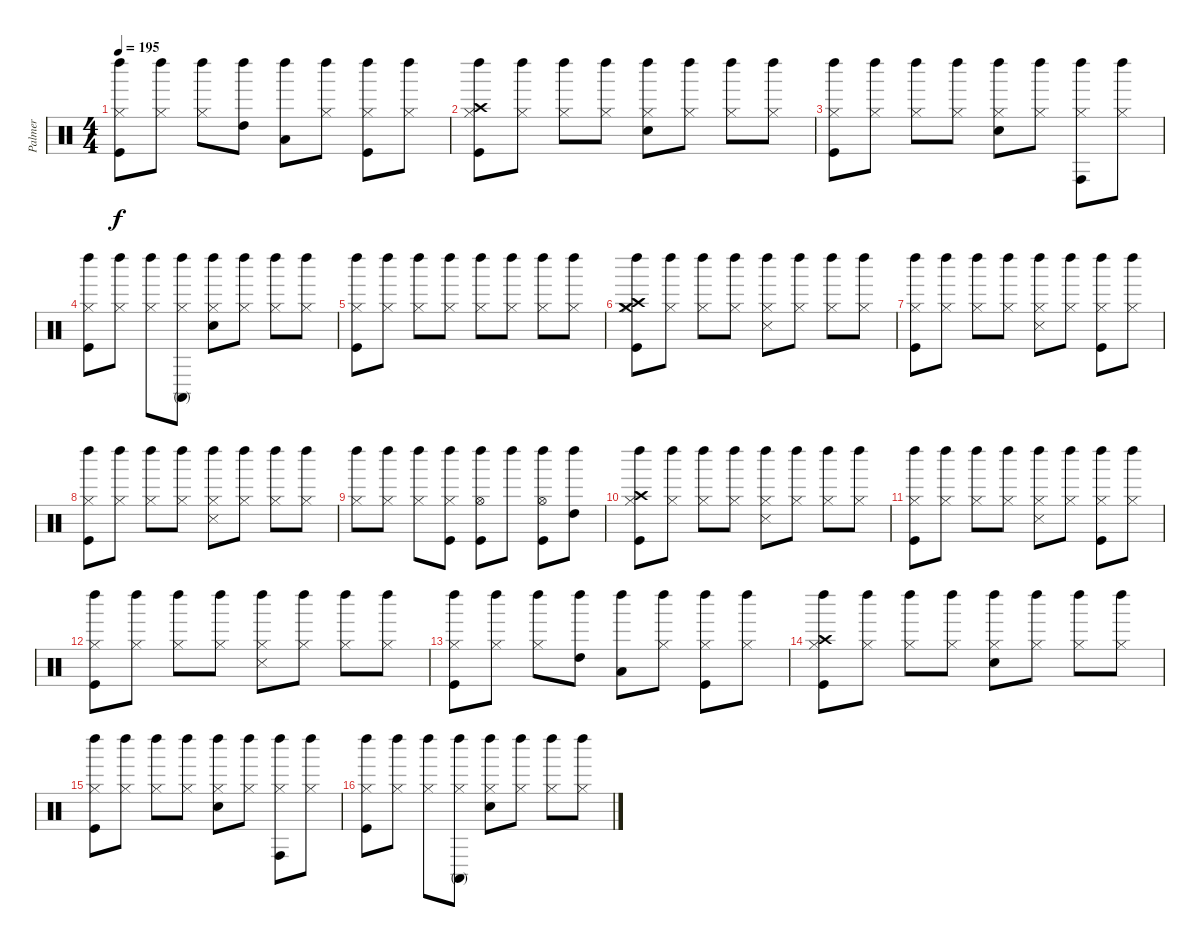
\track ("Palmer" "Palmer") {instrument percussion}
\staff {score}
\articulation defaults
\ts (4 4)
\tempo 195
\clef neutral
\ks c
("Kick (hit)" "Hi-Hat (closed)" "Left Maraca (hit)").8{dy f} ("Hi-Hat (closed)" "Left Maraca (hit)").8 ("Hi-Hat (closed)" "Left Maraca (hit)").8 ("High Tom (hit)" "Left Maraca (hit)").8 ("Low Tom (hit)" "Left Maraca (hit)").8 ("Hi-Hat (closed)" "Left Maraca (hit)").8 ("Kick (hit)" "Hi-Hat (closed)" "Left Maraca (hit)").8 ("Hi-Hat (closed)" "Left Maraca (hit)").8 |
("Kick (hit)" "Hi-Hat (closed)" "Crash high (hit)" "Left Maraca (hit)").8 ("Hi-Hat (closed)" "Left Maraca (hit)").8 ("Hi-Hat (closed)" "Left Maraca (hit)").8 ("Hi-Hat (closed)" "Left Maraca (hit)").8 ("Snare (hit) 2" "Hi-Hat (closed)" "Left Maraca (hit)").8 ("Hi-Hat (closed)" "Left Maraca (hit)").8 ("Hi-Hat (closed)" "Left Maraca (hit)").8 ("Hi-Hat (closed)" "Left Maraca (hit)").8 |
("Kick (hit)" "Hi-Hat (closed)" "Left Maraca (hit)").8 ("Hi-Hat (closed)" "Left Maraca (hit)").8 ("Hi-Hat (closed)" "Left Maraca (hit)").8 ("Hi-Hat (closed)" "Left Maraca (hit)").8 ("Snare (hit) 2" "Hi-Hat (closed)" "Left Maraca (hit)").8 ("Hi-Hat (closed)" "Left Maraca (hit)").8 ("Hi-Hat (closed)" "Conga high (hit)" "Left Maraca (hit)").8 ("Hi-Hat (closed)" "Left Maraca (hit)").8 |
("Kick (hit)" "Hi-Hat (closed)" "Left Maraca (hit)").8 ("Hi-Hat (closed)" "Left Maraca (hit)").8 ("Hi-Hat (closed)" "Left Maraca (hit)").8 ("Hi-Hat (closed)" "Conga high (mute)" "Left Maraca (hit)").8 ("Snare (hit) 2" "Hi-Hat (closed)" "Left Maraca (hit)").8 ("Hi-Hat (closed)" "Left Maraca (hit)").8 ("Hi-Hat (closed)" "Left Maraca (hit)").8 ("Hi-Hat (closed)" "Left Maraca (hit)").8 |
("Kick (hit)" "Hi-Hat (closed)" "Left Maraca (hit)").8 ("Hi-Hat (closed)" "Left Maraca (hit)").8 ("Hi-Hat (closed)" "Left Maraca (hit)").8 ("Hi-Hat (closed)" "Left Maraca (hit)").8 ("Hi-Hat (closed)" "Left Maraca (hit)").8 ("Hi-Hat (closed)" "Left Maraca (hit)").8 ("Hi-Hat (closed)" "Left Maraca (hit)").8 ("Hi-Hat (closed)" "Left Maraca (hit)").8 |
("Crash medium (hit)" "Kick (hit)" "Hi-Hat (closed)" "Crash high (hit)" "Left Maraca (hit)").8 ("Hi-Hat (closed)" "Left Maraca (hit)").8 ("Hi-Hat (closed)" "Left Maraca (hit)").8 ("Hi-Hat (closed)" "Left Maraca (hit)").8 ("Hi-Hat (closed)" "Snare (side stick) 3" "Left Maraca (hit)").8 ("Hi-Hat (closed)" "Left Maraca (hit)").8 ("Hi-Hat (closed)" "Left Maraca (hit)").8 ("Hi-Hat (closed)" "Left Maraca (hit)").8 |
("Kick (hit)" "Hi-Hat (closed)" "Left Maraca (hit)").8 ("Hi-Hat (closed)" "Left Maraca (hit)").8 ("Hi-Hat (closed)" "Left Maraca (hit)").8 ("Hi-Hat (closed)" "Left Maraca (hit)").8 ("Hi-Hat (closed)" "Snare (side stick) 3" "Left Maraca (hit)").8 ("Hi-Hat (closed)" "Left Maraca (hit)").8 ("Kick (hit)" "Hi-Hat (closed)" "Left Maraca (hit)").8 ("Hi-Hat (closed)" "Left Maraca (hit)").8 |
("Kick (hit)" "Hi-Hat (closed)" "Left Maraca (hit)").8 ("Hi-Hat (closed)" "Left Maraca (hit)").8 ("Hi-Hat (closed)" "Left Maraca (hit)").8 ("Hi-Hat (closed)" "Left Maraca (hit)").8 ("Hi-Hat (closed)" "Snare (side stick) 3" "Left Maraca (hit)").8 ("Hi-Hat (closed)" "Left Maraca (hit)").8 ("Hi-Hat (closed)" "Left Maraca (hit)").8 ("Hi-Hat (closed)" "Left Maraca (hit)").8 |
("Hi-Hat (closed)" "Left Maraca (hit)").8 ("Hi-Hat (closed)" "Left Maraca (hit)").8 ("Hi-Hat (closed)" "Left Maraca (hit)").8 ("Kick (hit)" "Hi-Hat (closed)" "Left Maraca (hit)").8 ("Kick (hit)" "Hi-Hat (open)" "Left Maraca (hit)").8 "Left Maraca (hit)".8 ("Kick (hit)" "Hi-Hat (open)" "Left Maraca (hit)").8 ("High Tom (hit)" "Left Maraca (hit)").8 |
("Kick (hit)" "Hi-Hat (closed)" "Crash high (hit)" "Left Maraca (hit)").8 ("Hi-Hat (closed)" "Left Maraca (hit)").8 ("Hi-Hat (closed)" "Left Maraca (hit)").8 ("Hi-Hat (closed)" "Left Maraca (hit)").8 ("Hi-Hat (closed)" "Snare (side stick) 3" "Left Maraca (hit)").8 ("Hi-Hat (closed)" "Left Maraca (hit)").8 ("Hi-Hat (closed)" "Left Maraca (hit)").8 ("Hi-Hat (closed)" "Left Maraca (hit)").8 |
("Kick (hit)" "Hi-Hat (closed)" "Left Maraca (hit)").8 ("Hi-Hat (closed)" "Left Maraca (hit)").8 ("Hi-Hat (closed)" "Left Maraca (hit)").8 ("Hi-Hat (closed)" "Left Maraca (hit)").8 ("Hi-Hat (closed)" "Snare (side stick) 3" "Left Maraca (hit)").8 ("Hi-Hat (closed)" "Left Maraca (hit)").8 ("Kick (hit)" "Hi-Hat (closed)" "Left Maraca (hit)").8 ("Hi-Hat (closed)" "Left Maraca (hit)").8 |
("Kick (hit)" "Hi-Hat (closed)" "Left Maraca (hit)").8 ("Hi-Hat (closed)" "Left Maraca (hit)").8 ("Hi-Hat (closed)" "Left Maraca (hit)").8 ("Hi-Hat (closed)" "Left Maraca (hit)").8 ("Hi-Hat (closed)" "Snare (side stick) 3" "Left Maraca (hit)").8 ("Hi-Hat (closed)" "Left Maraca (hit)").8 ("Hi-Hat (closed)" "Left Maraca (hit)").8 ("Hi-Hat (closed)" "Left Maraca (hit)").8 |
("Kick (hit)" "Hi-Hat (closed)" "Left Maraca (hit)").8 ("Hi-Hat (closed)" "Left Maraca (hit)").8 ("Hi-Hat (closed)" "Left Maraca (hit)").8 ("High Tom (hit)" "Left Maraca (hit)").8 ("Low Tom (hit)" "Left Maraca (hit)").8 ("Hi-Hat (closed)" "Left Maraca (hit)").8 ("Kick (hit)" "Hi-Hat (closed)" "Left Maraca (hit)").8 ("Hi-Hat (closed)" "Left Maraca (hit)").8 |
("Kick (hit)" "Hi-Hat (closed)" "Crash high (hit)" "Left Maraca (hit)").8 ("Hi-Hat (closed)" "Left Maraca (hit)").8 ("Hi-Hat (closed)" "Left Maraca (hit)").8 ("Hi-Hat (closed)" "Left Maraca (hit)").8 ("Snare (hit) 2" "Hi-Hat (closed)" "Left Maraca (hit)").8 ("Hi-Hat (closed)" "Left Maraca (hit)").8 ("Hi-Hat (closed)" "Left Maraca (hit)").8 ("Hi-Hat (closed)" "Left Maraca (hit)").8 |
("Kick (hit)" "Hi-Hat (closed)" "Left Maraca (hit)").8 ("Hi-Hat (closed)" "Left Maraca (hit)").8 ("Hi-Hat (closed)" "Left Maraca (hit)").8 ("Hi-Hat (closed)" "Left Maraca (hit)").8 ("Snare (hit) 2" "Hi-Hat (closed)" "Left Maraca (hit)").8 ("Hi-Hat (closed)" "Left Maraca (hit)").8 ("Hi-Hat (closed)" "Conga high (hit)" "Left Maraca (hit)").8 ("Hi-Hat (closed)" "Left Maraca (hit)").8 |
("Kick (hit)" "Hi-Hat (closed)" "Left Maraca (hit)").8 ("Hi-Hat (closed)" "Left Maraca (hit)").8 ("Hi-Hat (closed)" "Left Maraca (hit)").8 ("Hi-Hat (closed)" "Conga high (mute)" "Left Maraca (hit)").8 ("Snare (hit) 2" "Hi-Hat (closed)" "Left Maraca (hit)").8 ("Hi-Hat (closed)" "Left Maraca (hit)").8 ("Hi-Hat (closed)" "Left Maraca (hit)").8 ("Hi-Hat (closed)" "Left Maraca (hit)").8
